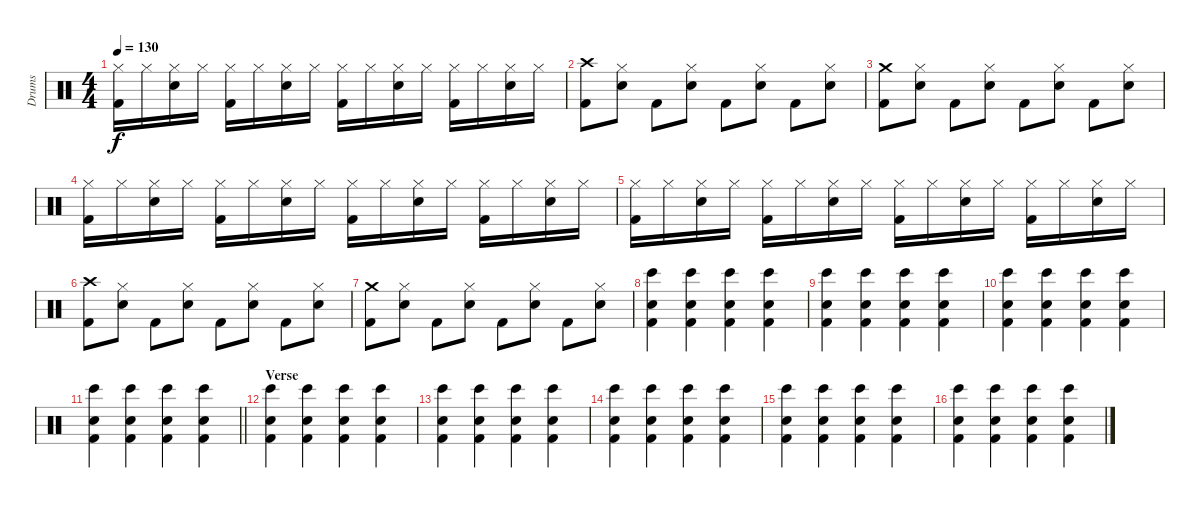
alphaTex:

\track ("Drums" "Drums") {instrument percussion}
\staff {score}
\articulation defaults
\ts (4 4)
\tempo 130
\clef neutral
\ks c
("Hi-Hat (closed)" "Kick (hit) 2").16{dy f} "Hi-Hat (closed)".16 ("Hi-Hat (closed)" "Electric Snare (hit)").16 "Hi-Hat (closed)".16 ("Hi-Hat (closed)" "Kick (hit) 2").16 "Hi-Hat (closed)".16 ("Hi-Hat (closed)" "Electric Snare (hit)").16 "Hi-Hat (closed)".16 ("Hi-Hat (closed)" "Kick (hit) 2").16 "Hi-Hat (closed)".16 ("Hi-Hat (closed)" "Electric Snare (hit)").16 "Hi-Hat (closed)".16 ("Hi-Hat (closed)" "Kick (hit) 2").16 "Hi-Hat (closed)".16 ("Hi-Hat (closed)" "Electric Snare (hit)").16 "Hi-Hat (closed)".16 |
("Crash high (hit)" "Kick (hit) 2").8 ("Electric Snare (hit)" "Hi-Hat (closed)").8 "Kick (hit) 2".8 ("Electric Snare (hit)" "Hi-Hat (closed)").8 "Kick (hit) 2".8 ("Electric Snare (hit)" "Hi-Hat (closed)").8 "Kick (hit) 2".8 ("Electric Snare (hit)" "Hi-Hat (closed)").8 |
("Crash medium (hit)" "Kick (hit) 2").8 ("Electric Snare (hit)" "Hi-Hat (closed)").8 "Kick (hit) 2".8 ("Electric Snare (hit)" "Hi-Hat (closed)").8 "Kick (hit) 2".8 ("Electric Snare (hit)" "Hi-Hat (closed)").8 "Kick (hit) 2".8 ("Electric Snare (hit)" "Hi-Hat (closed)").8 |
("Hi-Hat (closed)" "Kick (hit) 2").16 "Hi-Hat (closed)".16 ("Hi-Hat (closed)" "Electric Snare (hit)").16 "Hi-Hat (closed)".16 ("Hi-Hat (closed)" "Kick (hit) 2").16 "Hi-Hat (closed)".16 ("Hi-Hat (closed)" "Electric Snare (hit)").16 "Hi-Hat (closed)".16 ("Hi-Hat (closed)" "Kick (hit) 2").16 "Hi-Hat (closed)".16 ("Hi-Hat (closed)" "Electric Snare (hit)").16 "Hi-Hat (closed)".16 ("Hi-Hat (closed)" "Kick (hit) 2").16 "Hi-Hat (closed)".16 ("Hi-Hat (closed)" "Electric Snare (hit)").16 "Hi-Hat (closed)".16 |
("Hi-Hat (closed)" "Kick (hit) 2").16 "Hi-Hat (closed)".16 ("Hi-Hat (closed)" "Electric Snare (hit)").16 "Hi-Hat (closed)".16 ("Hi-Hat (closed)" "Kick (hit) 2").16 "Hi-Hat (closed)".16 ("Hi-Hat (closed)" "Electric Snare (hit)").16 "Hi-Hat (closed)".16 ("Hi-Hat (closed)" "Kick (hit) 2").16 "Hi-Hat (closed)".16 ("Hi-Hat (closed)" "Electric Snare (hit)").16 "Hi-Hat (closed)".16 ("Hi-Hat (closed)" "Kick (hit) 2").16 "Hi-Hat (closed)".16 ("Hi-Hat (closed)" "Electric Snare (hit)").16 "Hi-Hat (closed)".16 |
("Crash high (hit)" "Kick (hit) 2").8 ("Electric Snare (hit)" "Hi-Hat (closed)").8 "Kick (hit) 2".8 ("Electric Snare (hit)" "Hi-Hat (closed)").8 "Kick (hit) 2".8 ("Electric Snare (hit)" "Hi-Hat (closed)").8 "Kick (hit) 2".8 ("Electric Snare (hit)" "Hi-Hat (closed)").8 |
("Crash medium (hit)" "Kick (hit) 2").8 ("Electric Snare (hit)" "Hi-Hat (closed)").8 "Kick (hit) 2".8 ("Electric Snare (hit)" "Hi-Hat (closed)").8 "Kick (hit) 2".8 ("Electric Snare (hit)" "Hi-Hat (closed)").8 "Kick (hit) 2".8 ("Electric Snare (hit)" "Hi-Hat (closed)").8 |
("Electric Snare (hit)" "Kick (hit) 2" "Bongo High (hit)").4 ("Electric Snare (hit)" "Kick (hit) 2" "Bongo High (hit)").4 ("Electric Snare (hit)" "Kick (hit) 2" "Bongo High (hit)").4 ("Electric Snare (hit)" "Kick (hit) 2" "Bongo High (hit)").4 |
("Electric Snare (hit)" "Kick (hit) 2" "Bongo High (hit)").4 ("Electric Snare (hit)" "Kick (hit) 2" "Bongo High (hit)").4 ("Electric Snare (hit)" "Kick (hit) 2" "Bongo High (hit)").4 ("Electric Snare (hit)" "Kick (hit) 2" "Bongo High (hit)").4 |
("Electric Snare (hit)" "Kick (hit) 2" "Bongo High (hit)").4 ("Electric Snare (hit)" "Kick (hit) 2" "Bongo High (hit)").4 ("Electric Snare (hit)" "Kick (hit) 2" "Bongo High (hit)").4 ("Electric Snare (hit)" "Kick (hit) 2" "Bongo High (hit)").4 |
\barLineRight lightlight
("Electric Snare (hit)" "Kick (hit) 2" "Bongo High (hit)").4 ("Electric Snare (hit)" "Kick (hit) 2" "Bongo High (hit)").4 ("Electric Snare (hit)" "Kick (hit) 2" "Bongo High (hit)").4 ("Electric Snare (hit)" "Kick (hit) 2" "Bongo High (hit)").4 |
\section ("" "Verse")
("Electric Snare (hit)" "Kick (hit) 2" "Bongo High (hit)").4 ("Electric Snare (hit)" "Kick (hit) 2" "Bongo High (hit)").4 ("Electric Snare (hit)" "Kick (hit) 2" "Bongo High (hit)").4 ("Electric Snare (hit)" "Kick (hit) 2" "Bongo High (hit)").4 |
("Electric Snare (hit)" "Kick (hit) 2" "Bongo High (hit)").4 ("Electric Snare (hit)" "Kick (hit) 2" "Bongo High (hit)").4 ("Electric Snare (hit)" "Kick (hit) 2" "Bongo High (hit)").4 ("Electric Snare (hit)" "Kick (hit) 2" "Bongo High (hit)").4 |
("Electric Snare (hit)" "Kick (hit) 2" "Bongo High (hit)").4 ("Electric Snare (hit)" "Kick (hit) 2" "Bongo High (hit)").4 ("Electric Snare (hit)" "Kick (hit) 2" "Bongo High (hit)").4 ("Electric Snare (hit)" "Kick (hit) 2" "Bongo High (hit)").4 |
("Electric Snare (hit)" "Kick (hit) 2" "Bongo High (hit)").4 ("Electric Snare (hit)" "Kick (hit) 2" "Bongo High (hit)").4 ("Electric Snare (hit)" "Kick (hit) 2" "Bongo High (hit)").4 ("Electric Snare (hit)" "Kick (hit) 2" "Bongo High (hit)").4 |
("Electric Snare (hit)" "Kick (hit) 2" "Bongo High (hit)").4 ("Electric Snare (hit)" "Kick (hit) 2" "Bongo High (hit)").4 ("Electric Snare (hit)" "Kick (hit) 2" "Bongo High (hit)").4 ("Electric Snare (hit)" "Kick (hit) 2" "Bongo High (hit)").4
